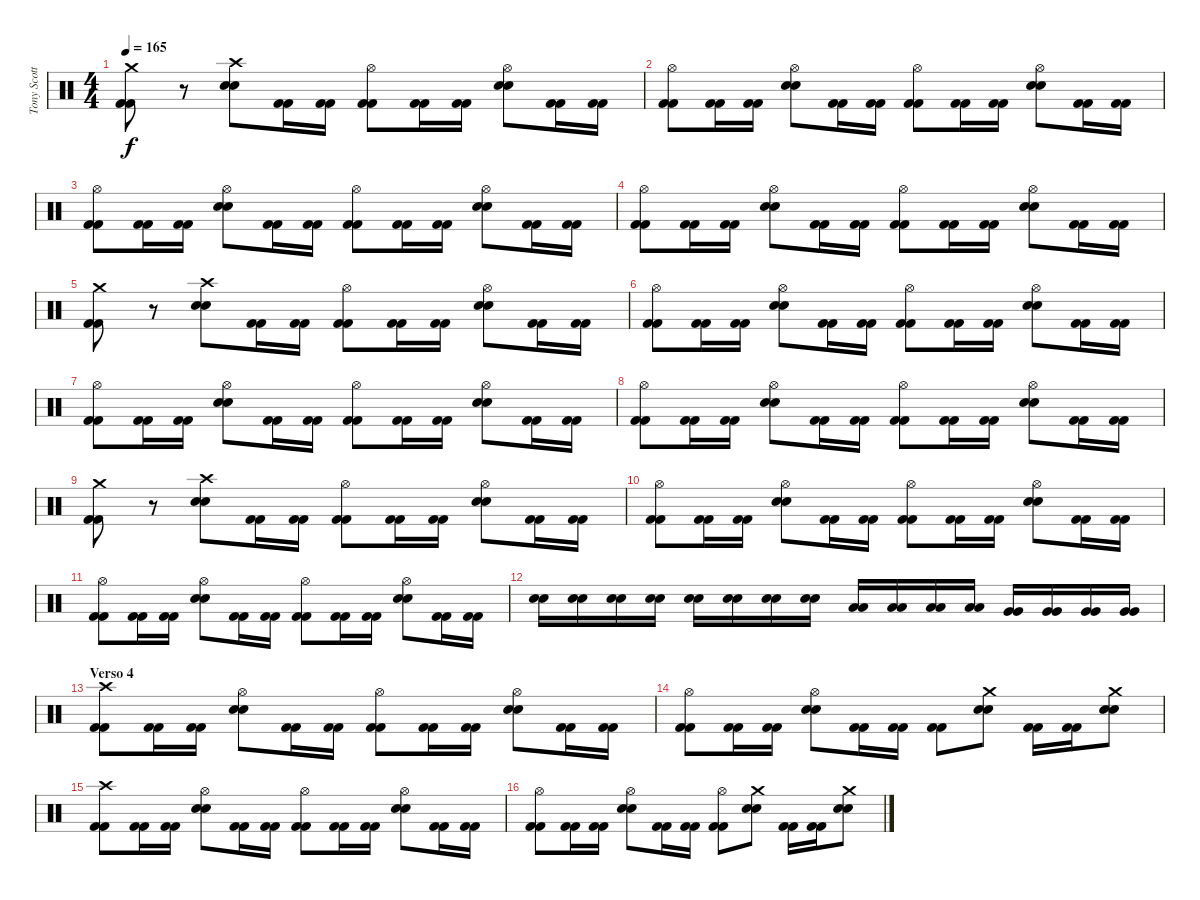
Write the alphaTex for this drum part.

\track ("Tony Scotto (bateria)" "Tony Scott") {instrument percussion}
\staff {score}
\articulation defaults
\ts (4 4)
\tempo 165
\clef neutral
\ks c
("Crash medium (hit)" "Kick (hit) 2" "Kick (hit) 2").8{dy f} r.8 ("Crash high (hit)" "Snare (hit) 2" "Snare (hit) 2").8 ("Kick (hit) 2" "Kick (hit) 2").16 ("Kick (hit) 2" "Kick (hit) 2").16 ("Hi-Hat (open)" "Kick (hit) 2" "Kick (hit) 2").8 ("Kick (hit) 2" "Kick (hit) 2").16 ("Kick (hit) 2" "Kick (hit) 2").16 ("Hi-Hat (open)" "Snare (hit) 2" "Snare (hit) 2").8 ("Kick (hit) 2" "Kick (hit) 2").16 ("Kick (hit) 2" "Kick (hit) 2").16 |
("Hi-Hat (open)" "Kick (hit) 2" "Kick (hit) 2").8 ("Kick (hit) 2" "Kick (hit) 2").16 ("Kick (hit) 2" "Kick (hit) 2").16 ("Hi-Hat (open)" "Snare (hit) 2" "Snare (hit) 2").8 ("Kick (hit) 2" "Kick (hit) 2").16 ("Kick (hit) 2" "Kick (hit) 2").16 ("Hi-Hat (open)" "Kick (hit) 2" "Kick (hit) 2").8 ("Kick (hit) 2" "Kick (hit) 2").16 ("Kick (hit) 2" "Kick (hit) 2").16 ("Hi-Hat (open)" "Snare (hit) 2" "Snare (hit) 2").8 ("Kick (hit) 2" "Kick (hit) 2").16 ("Kick (hit) 2" "Kick (hit) 2").16 |
("Hi-Hat (open)" "Kick (hit) 2" "Kick (hit) 2").8 ("Kick (hit) 2" "Kick (hit) 2").16 ("Kick (hit) 2" "Kick (hit) 2").16 ("Hi-Hat (open)" "Snare (hit) 2" "Snare (hit) 2").8 ("Kick (hit) 2" "Kick (hit) 2").16 ("Kick (hit) 2" "Kick (hit) 2").16 ("Hi-Hat (open)" "Kick (hit) 2" "Kick (hit) 2").8 ("Kick (hit) 2" "Kick (hit) 2").16 ("Kick (hit) 2" "Kick (hit) 2").16 ("Hi-Hat (open)" "Snare (hit) 2" "Snare (hit) 2").8 ("Kick (hit) 2" "Kick (hit) 2").16 ("Kick (hit) 2" "Kick (hit) 2").16 |
("Hi-Hat (open)" "Kick (hit) 2" "Kick (hit) 2").8 ("Kick (hit) 2" "Kick (hit) 2").16 ("Kick (hit) 2" "Kick (hit) 2").16 ("Hi-Hat (open)" "Snare (hit) 2" "Snare (hit) 2").8 ("Kick (hit) 2" "Kick (hit) 2").16 ("Kick (hit) 2" "Kick (hit) 2").16 ("Hi-Hat (open)" "Kick (hit) 2" "Kick (hit) 2").8 ("Kick (hit) 2" "Kick (hit) 2").16 ("Kick (hit) 2" "Kick (hit) 2").16 ("Hi-Hat (open)" "Snare (hit) 2" "Snare (hit) 2").8 ("Kick (hit) 2" "Kick (hit) 2").16 ("Kick (hit) 2" "Kick (hit) 2").16 |
("Crash medium (hit)" "Kick (hit) 2" "Kick (hit) 2").8 r.8 ("Crash high (hit)" "Snare (hit) 2" "Snare (hit) 2").8 ("Kick (hit) 2" "Kick (hit) 2").16 ("Kick (hit) 2" "Kick (hit) 2").16 ("Hi-Hat (open)" "Kick (hit) 2" "Kick (hit) 2").8 ("Kick (hit) 2" "Kick (hit) 2").16 ("Kick (hit) 2" "Kick (hit) 2").16 ("Hi-Hat (open)" "Snare (hit) 2" "Snare (hit) 2").8 ("Kick (hit) 2" "Kick (hit) 2").16 ("Kick (hit) 2" "Kick (hit) 2").16 |
("Hi-Hat (open)" "Kick (hit) 2" "Kick (hit) 2").8 ("Kick (hit) 2" "Kick (hit) 2").16 ("Kick (hit) 2" "Kick (hit) 2").16 ("Hi-Hat (open)" "Snare (hit) 2" "Snare (hit) 2").8 ("Kick (hit) 2" "Kick (hit) 2").16 ("Kick (hit) 2" "Kick (hit) 2").16 ("Hi-Hat (open)" "Kick (hit) 2" "Kick (hit) 2").8 ("Kick (hit) 2" "Kick (hit) 2").16 ("Kick (hit) 2" "Kick (hit) 2").16 ("Hi-Hat (open)" "Snare (hit) 2" "Snare (hit) 2").8 ("Kick (hit) 2" "Kick (hit) 2").16 ("Kick (hit) 2" "Kick (hit) 2").16 |
("Hi-Hat (open)" "Kick (hit) 2" "Kick (hit) 2").8 ("Kick (hit) 2" "Kick (hit) 2").16 ("Kick (hit) 2" "Kick (hit) 2").16 ("Hi-Hat (open)" "Snare (hit) 2" "Snare (hit) 2").8 ("Kick (hit) 2" "Kick (hit) 2").16 ("Kick (hit) 2" "Kick (hit) 2").16 ("Hi-Hat (open)" "Kick (hit) 2" "Kick (hit) 2").8 ("Kick (hit) 2" "Kick (hit) 2").16 ("Kick (hit) 2" "Kick (hit) 2").16 ("Hi-Hat (open)" "Snare (hit) 2" "Snare (hit) 2").8 ("Kick (hit) 2" "Kick (hit) 2").16 ("Kick (hit) 2" "Kick (hit) 2").16 |
("Hi-Hat (open)" "Kick (hit) 2" "Kick (hit) 2").8 ("Kick (hit) 2" "Kick (hit) 2").16 ("Kick (hit) 2" "Kick (hit) 2").16 ("Hi-Hat (open)" "Snare (hit) 2" "Snare (hit) 2").8 ("Kick (hit) 2" "Kick (hit) 2").16 ("Kick (hit) 2" "Kick (hit) 2").16 ("Hi-Hat (open)" "Kick (hit) 2" "Kick (hit) 2").8 ("Kick (hit) 2" "Kick (hit) 2").16 ("Kick (hit) 2" "Kick (hit) 2").16 ("Hi-Hat (open)" "Snare (hit) 2" "Snare (hit) 2").8 ("Kick (hit) 2" "Kick (hit) 2").16 ("Kick (hit) 2" "Kick (hit) 2").16 |
("Crash medium (hit)" "Kick (hit) 2" "Kick (hit) 2").8 r.8 ("Crash high (hit)" "Snare (hit) 2" "Snare (hit) 2").8 ("Kick (hit) 2" "Kick (hit) 2").16 ("Kick (hit) 2" "Kick (hit) 2").16 ("Hi-Hat (open)" "Kick (hit) 2" "Kick (hit) 2").8 ("Kick (hit) 2" "Kick (hit) 2").16 ("Kick (hit) 2" "Kick (hit) 2").16 ("Hi-Hat (open)" "Snare (hit) 2" "Snare (hit) 2").8 ("Kick (hit) 2" "Kick (hit) 2").16 ("Kick (hit) 2" "Kick (hit) 2").16 |
("Hi-Hat (open)" "Kick (hit) 2" "Kick (hit) 2").8 ("Kick (hit) 2" "Kick (hit) 2").16 ("Kick (hit) 2" "Kick (hit) 2").16 ("Hi-Hat (open)" "Snare (hit) 2" "Snare (hit) 2").8 ("Kick (hit) 2" "Kick (hit) 2").16 ("Kick (hit) 2" "Kick (hit) 2").16 ("Hi-Hat (open)" "Kick (hit) 2" "Kick (hit) 2").8 ("Kick (hit) 2" "Kick (hit) 2").16 ("Kick (hit) 2" "Kick (hit) 2").16 ("Hi-Hat (open)" "Snare (hit) 2" "Snare (hit) 2").8 ("Kick (hit) 2" "Kick (hit) 2").16 ("Kick (hit) 2" "Kick (hit) 2").16 |
("Hi-Hat (open)" "Kick (hit) 2" "Kick (hit) 2").8 ("Kick (hit) 2" "Kick (hit) 2").16 ("Kick (hit) 2" "Kick (hit) 2").16 ("Hi-Hat (open)" "Snare (hit) 2" "Snare (hit) 2").8 ("Kick (hit) 2" "Kick (hit) 2").16 ("Kick (hit) 2" "Kick (hit) 2").16 ("Hi-Hat (open)" "Kick (hit) 2" "Kick (hit) 2").8 ("Kick (hit) 2" "Kick (hit) 2").16 ("Kick (hit) 2" "Kick (hit) 2").16 ("Hi-Hat (open)" "Snare (hit) 2" "Snare (hit) 2").8 ("Kick (hit) 2" "Kick (hit) 2").16 ("Kick (hit) 2" "Kick (hit) 2").16 |
("Snare (hit) 2" "Snare (hit) 2").16 ("Snare (hit) 2" "Snare (hit) 2").16 ("Snare (hit) 2" "Snare (hit) 2").16 ("Snare (hit) 2" "Snare (hit) 2").16 ("Snare (hit) 2" "Snare (hit) 2").16 ("Snare (hit) 2" "Snare (hit) 2").16 ("Snare (hit) 2" "Snare (hit) 2").16 ("Snare (hit) 2" "Snare (hit) 2").16 ("Low Tom (hit)" "Low Tom (hit)").16 ("Low Tom (hit)" "Low Tom (hit)").16 ("Low Tom (hit)" "Low Tom (hit)").16 ("Low Tom (hit)" "Low Tom (hit)").16 ("Very Low Tom (hit)" "Very Low Tom (hit)").16 ("Very Low Tom (hit)" "Very Low Tom (hit)").16 ("Very Low Tom (hit)" "Very Low Tom (hit)").16 ("Very Low Tom (hit)" "Very Low Tom (hit)").16 |
\section ("" "Verso 4")
("Crash high (hit)" "Kick (hit) 2" "Kick (hit) 2").8 ("Kick (hit) 2" "Kick (hit) 2").16 ("Kick (hit) 2" "Kick (hit) 2").16 ("Hi-Hat (open)" "Snare (hit) 2" "Snare (hit) 2").8 ("Kick (hit) 2" "Kick (hit) 2").16 ("Kick (hit) 2" "Kick (hit) 2").16 ("Hi-Hat (open)" "Kick (hit) 2" "Kick (hit) 2").8 ("Kick (hit) 2" "Kick (hit) 2").16 ("Kick (hit) 2" "Kick (hit) 2").16 ("Hi-Hat (open)" "Snare (hit) 2" "Snare (hit) 2").8 ("Kick (hit) 2" "Kick (hit) 2").16 ("Kick (hit) 2" "Kick (hit) 2").16 |
("Hi-Hat (open)" "Kick (hit) 2" "Kick (hit) 2").8 ("Kick (hit) 2" "Kick (hit) 2").16 ("Kick (hit) 2" "Kick (hit) 2").16 ("Hi-Hat (open)" "Snare (hit) 2" "Snare (hit) 2").8 ("Kick (hit) 2" "Kick (hit) 2").16 ("Kick (hit) 2" "Kick (hit) 2").16 ("Kick (hit) 2" "Kick (hit) 2").8 ("Crash medium (hit)" "Snare (hit) 2" "Snare (hit) 2").8 ("Kick (hit) 2" "Kick (hit) 2").16 ("Kick (hit) 2" "Kick (hit) 2").16 ("Crash medium (hit)" "Snare (hit) 2" "Snare (hit) 2").8 |
("Crash high (hit)" "Kick (hit) 2" "Kick (hit) 2").8 ("Kick (hit) 2" "Kick (hit) 2").16 ("Kick (hit) 2" "Kick (hit) 2").16 ("Hi-Hat (open)" "Snare (hit) 2" "Snare (hit) 2").8 ("Kick (hit) 2" "Kick (hit) 2").16 ("Kick (hit) 2" "Kick (hit) 2").16 ("Hi-Hat (open)" "Kick (hit) 2" "Kick (hit) 2").8 ("Kick (hit) 2" "Kick (hit) 2").16 ("Kick (hit) 2" "Kick (hit) 2").16 ("Hi-Hat (open)" "Snare (hit) 2" "Snare (hit) 2").8 ("Kick (hit) 2" "Kick (hit) 2").16 ("Kick (hit) 2" "Kick (hit) 2").16 |
("Hi-Hat (open)" "Kick (hit) 2" "Kick (hit) 2").8 ("Kick (hit) 2" "Kick (hit) 2").16 ("Kick (hit) 2" "Kick (hit) 2").16 ("Hi-Hat (open)" "Snare (hit) 2" "Snare (hit) 2").8 ("Kick (hit) 2" "Kick (hit) 2").16 ("Kick (hit) 2" "Kick (hit) 2").16 ("Hi-Hat (open)" "Kick (hit) 2" "Kick (hit) 2").8 ("Crash medium (hit)" "Snare (hit) 2" "Snare (hit) 2").8 ("Kick (hit) 2" "Kick (hit) 2").16 ("Kick (hit) 2" "Kick (hit) 2").16 ("Crash medium (hit)" "Snare (hit) 2" "Snare (hit) 2").8
